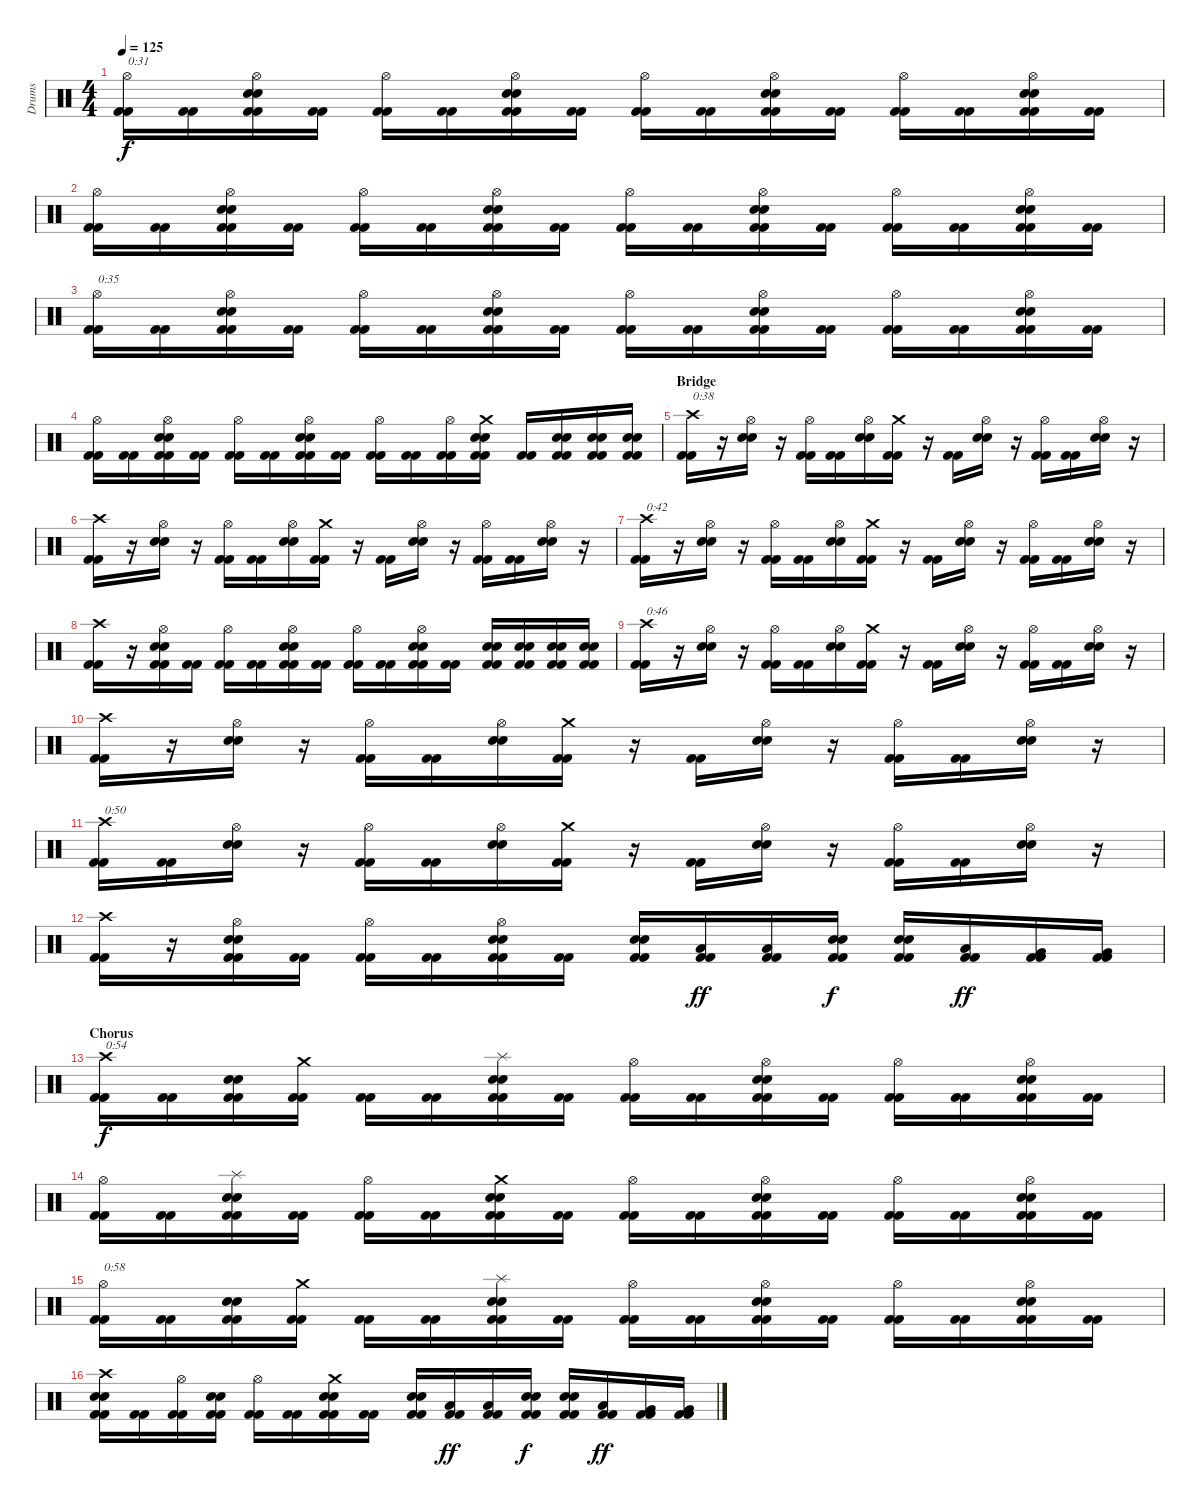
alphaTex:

\track ("Drums" "Drums") {instrument percussion}
\staff {score}
\articulation defaults
\ts (4 4)
\tempo 125
\clef neutral
\ks c
("Hi-Hat (open)" "Kick (hit) 2" "Kick (hit) 2").16{txt "0:31" dy f} ("Kick (hit) 2" "Kick (hit) 2").16 ("Hi-Hat (open)" "Snare (hit) 2" "Snare (hit) 2" "Kick (hit) 2" "Kick (hit) 2").16 ("Kick (hit) 2" "Kick (hit) 2").16 ("Hi-Hat (open)" "Kick (hit) 2" "Kick (hit) 2").16 ("Kick (hit) 2" "Kick (hit) 2").16 ("Hi-Hat (open)" "Snare (hit) 2" "Snare (hit) 2" "Kick (hit) 2" "Kick (hit) 2").16 ("Kick (hit) 2" "Kick (hit) 2").16 ("Hi-Hat (open)" "Kick (hit) 2" "Kick (hit) 2").16 ("Kick (hit) 2" "Kick (hit) 2").16 ("Hi-Hat (open)" "Snare (hit) 2" "Snare (hit) 2" "Kick (hit) 2" "Kick (hit) 2").16 ("Kick (hit) 2" "Kick (hit) 2").16 ("Hi-Hat (open)" "Kick (hit) 2" "Kick (hit) 2").16 ("Kick (hit) 2" "Kick (hit) 2").16 ("Hi-Hat (open)" "Snare (hit) 2" "Snare (hit) 2" "Kick (hit) 2" "Kick (hit) 2").16 ("Kick (hit) 2" "Kick (hit) 2").16 |
("Hi-Hat (open)" "Kick (hit) 2" "Kick (hit) 2").16 ("Kick (hit) 2" "Kick (hit) 2").16 ("Hi-Hat (open)" "Snare (hit) 2" "Snare (hit) 2" "Kick (hit) 2" "Kick (hit) 2").16 ("Kick (hit) 2" "Kick (hit) 2").16 ("Hi-Hat (open)" "Kick (hit) 2" "Kick (hit) 2").16 ("Kick (hit) 2" "Kick (hit) 2").16 ("Hi-Hat (open)" "Snare (hit) 2" "Snare (hit) 2" "Kick (hit) 2" "Kick (hit) 2").16 ("Kick (hit) 2" "Kick (hit) 2").16 ("Hi-Hat (open)" "Kick (hit) 2" "Kick (hit) 2").16 ("Kick (hit) 2" "Kick (hit) 2").16 ("Hi-Hat (open)" "Snare (hit) 2" "Snare (hit) 2" "Kick (hit) 2" "Kick (hit) 2").16 ("Kick (hit) 2" "Kick (hit) 2").16 ("Hi-Hat (open)" "Kick (hit) 2" "Kick (hit) 2").16 ("Kick (hit) 2" "Kick (hit) 2").16 ("Hi-Hat (open)" "Snare (hit) 2" "Snare (hit) 2" "Kick (hit) 2" "Kick (hit) 2").16 ("Kick (hit) 2" "Kick (hit) 2").16 |
("Hi-Hat (open)" "Kick (hit) 2" "Kick (hit) 2").16{txt "0:35"} ("Kick (hit) 2" "Kick (hit) 2").16 ("Hi-Hat (open)" "Snare (hit) 2" "Snare (hit) 2" "Kick (hit) 2" "Kick (hit) 2").16 ("Kick (hit) 2" "Kick (hit) 2").16 ("Hi-Hat (open)" "Kick (hit) 2" "Kick (hit) 2").16 ("Kick (hit) 2" "Kick (hit) 2").16 ("Hi-Hat (open)" "Snare (hit) 2" "Snare (hit) 2" "Kick (hit) 2" "Kick (hit) 2").16 ("Kick (hit) 2" "Kick (hit) 2").16 ("Hi-Hat (open)" "Kick (hit) 2" "Kick (hit) 2").16 ("Kick (hit) 2" "Kick (hit) 2").16 ("Hi-Hat (open)" "Snare (hit) 2" "Snare (hit) 2" "Kick (hit) 2" "Kick (hit) 2").16 ("Kick (hit) 2" "Kick (hit) 2").16 ("Hi-Hat (open)" "Kick (hit) 2" "Kick (hit) 2").16 ("Kick (hit) 2" "Kick (hit) 2").16 ("Hi-Hat (open)" "Snare (hit) 2" "Snare (hit) 2" "Kick (hit) 2" "Kick (hit) 2").16 ("Kick (hit) 2" "Kick (hit) 2").16 |
("Hi-Hat (open)" "Kick (hit) 2" "Kick (hit) 2").16 ("Kick (hit) 2" "Kick (hit) 2").16 ("Hi-Hat (open)" "Snare (hit) 2" "Snare (hit) 2" "Kick (hit) 2" "Kick (hit) 2").16 ("Kick (hit) 2" "Kick (hit) 2").16 ("Hi-Hat (open)" "Kick (hit) 2" "Kick (hit) 2").16 ("Kick (hit) 2" "Kick (hit) 2").16 ("Hi-Hat (open)" "Snare (hit) 2" "Snare (hit) 2" "Kick (hit) 2" "Kick (hit) 2").16 ("Kick (hit) 2" "Kick (hit) 2").16 ("Hi-Hat (open)" "Kick (hit) 2" "Kick (hit) 2").16 ("Kick (hit) 2" "Kick (hit) 2").16 ("Hi-Hat (open)" "Kick (hit) 2" "Kick (hit) 2").16 ("Crash medium (hit)" "Snare (hit) 2" "Snare (hit) 2" "Kick (hit) 2" "Kick (hit) 2").16 ("Kick (hit) 2" "Kick (hit) 2").16 ("Snare (hit) 2" "Snare (hit) 2" "Kick (hit) 2" "Kick (hit) 2").16 ("Snare (hit) 2" "Snare (hit) 2" "Kick (hit) 2" "Kick (hit) 2").16 ("Snare (hit) 2" "Snare (hit) 2" "Kick (hit) 2" "Kick (hit) 2").16 |
\section ("" "Bridge")
("Crash high (hit)" "Kick (hit) 2" "Kick (hit) 2").16{txt "0:38"} r.16 ("Hi-Hat (open)" "Snare (hit) 2" "Snare (hit) 2").16 r.16 ("Hi-Hat (open)" "Kick (hit) 2" "Kick (hit) 2").16 ("Kick (hit) 2" "Kick (hit) 2").16 ("Hi-Hat (open)" "Snare (hit) 2" "Snare (hit) 2").16 ("Crash medium (hit)" "Kick (hit) 2" "Kick (hit) 2").16 r.16 ("Kick (hit) 2" "Kick (hit) 2").16 ("Hi-Hat (open)" "Snare (hit) 2" "Snare (hit) 2").16 r.16 ("Hi-Hat (open)" "Kick (hit) 2" "Kick (hit) 2").16 ("Kick (hit) 2" "Kick (hit) 2").16 ("Hi-Hat (open)" "Snare (hit) 2" "Snare (hit) 2").16 r.16 |
("Crash high (hit)" "Kick (hit) 2" "Kick (hit) 2").16 r.16 ("Hi-Hat (open)" "Snare (hit) 2" "Snare (hit) 2").16 r.16 ("Hi-Hat (open)" "Kick (hit) 2" "Kick (hit) 2").16 ("Kick (hit) 2" "Kick (hit) 2").16 ("Hi-Hat (open)" "Snare (hit) 2" "Snare (hit) 2").16 ("Crash medium (hit)" "Kick (hit) 2" "Kick (hit) 2").16 r.16 ("Kick (hit) 2" "Kick (hit) 2").16 ("Hi-Hat (open)" "Snare (hit) 2" "Snare (hit) 2").16 r.16 ("Hi-Hat (open)" "Kick (hit) 2" "Kick (hit) 2").16 ("Kick (hit) 2" "Kick (hit) 2").16 ("Hi-Hat (open)" "Snare (hit) 2" "Snare (hit) 2").16 r.16 |
("Crash high (hit)" "Kick (hit) 2" "Kick (hit) 2").16{txt "0:42"} r.16 ("Hi-Hat (open)" "Snare (hit) 2" "Snare (hit) 2").16 r.16 ("Hi-Hat (open)" "Kick (hit) 2" "Kick (hit) 2").16 ("Kick (hit) 2" "Kick (hit) 2").16 ("Hi-Hat (open)" "Snare (hit) 2" "Snare (hit) 2").16 ("Crash medium (hit)" "Kick (hit) 2" "Kick (hit) 2").16 r.16 ("Kick (hit) 2" "Kick (hit) 2").16 ("Hi-Hat (open)" "Snare (hit) 2" "Snare (hit) 2").16 r.16 ("Hi-Hat (open)" "Kick (hit) 2" "Kick (hit) 2").16 ("Kick (hit) 2" "Kick (hit) 2").16 ("Hi-Hat (open)" "Snare (hit) 2" "Snare (hit) 2").16 r.16 |
("Crash high (hit)" "Kick (hit) 2" "Kick (hit) 2").16 r.16 ("Hi-Hat (open)" "Snare (hit) 2" "Snare (hit) 2" "Kick (hit) 2" "Kick (hit) 2").16 ("Kick (hit) 2" "Kick (hit) 2").16 ("Hi-Hat (open)" "Kick (hit) 2" "Kick (hit) 2").16 ("Kick (hit) 2" "Kick (hit) 2").16 ("Hi-Hat (open)" "Snare (hit) 2" "Snare (hit) 2" "Kick (hit) 2" "Kick (hit) 2").16 ("Kick (hit) 2" "Kick (hit) 2").16 ("Hi-Hat (open)" "Kick (hit) 2" "Kick (hit) 2").16 ("Kick (hit) 2" "Kick (hit) 2").16 ("Hi-Hat (open)" "Snare (hit) 2" "Snare (hit) 2" "Kick (hit) 2" "Kick (hit) 2").16 ("Kick (hit) 2" "Kick (hit) 2").16 ("Snare (hit) 2" "Snare (hit) 2" "Kick (hit) 2" "Kick (hit) 2").16 ("Snare (hit) 2" "Snare (hit) 2" "Kick (hit) 2" "Kick (hit) 2").16 ("Snare (hit) 2" "Snare (hit) 2" "Kick (hit) 2" "Kick (hit) 2").16 ("Snare (hit) 2" "Snare (hit) 2" "Kick (hit) 2" "Kick (hit) 2").16 |
("Crash high (hit)" "Kick (hit) 2" "Kick (hit) 2").16{txt "0:46"} r.16 ("Hi-Hat (open)" "Snare (hit) 2" "Snare (hit) 2").16 r.16 ("Hi-Hat (open)" "Kick (hit) 2" "Kick (hit) 2").16 ("Kick (hit) 2" "Kick (hit) 2").16 ("Hi-Hat (open)" "Snare (hit) 2" "Snare (hit) 2").16 ("Crash medium (hit)" "Kick (hit) 2" "Kick (hit) 2").16 r.16 ("Kick (hit) 2" "Kick (hit) 2").16 ("Hi-Hat (open)" "Snare (hit) 2" "Snare (hit) 2").16 r.16 ("Hi-Hat (open)" "Kick (hit) 2" "Kick (hit) 2").16 ("Kick (hit) 2" "Kick (hit) 2").16 ("Hi-Hat (open)" "Snare (hit) 2" "Snare (hit) 2").16 r.16 |
("Crash high (hit)" "Kick (hit) 2" "Kick (hit) 2").16 r.16 ("Hi-Hat (open)" "Snare (hit) 2" "Snare (hit) 2").16 r.16 ("Hi-Hat (open)" "Kick (hit) 2" "Kick (hit) 2").16 ("Kick (hit) 2" "Kick (hit) 2").16 ("Hi-Hat (open)" "Snare (hit) 2" "Snare (hit) 2").16 ("Crash medium (hit)" "Kick (hit) 2" "Kick (hit) 2").16 r.16 ("Kick (hit) 2" "Kick (hit) 2").16 ("Hi-Hat (open)" "Snare (hit) 2" "Snare (hit) 2").16 r.16 ("Hi-Hat (open)" "Kick (hit) 2" "Kick (hit) 2").16 ("Kick (hit) 2" "Kick (hit) 2").16 ("Hi-Hat (open)" "Snare (hit) 2" "Snare (hit) 2").16 r.16 |
("Crash high (hit)" "Kick (hit) 2" "Kick (hit) 2").16{txt "0:50"} ("Kick (hit) 2" "Kick (hit) 2").16 ("Hi-Hat (open)" "Snare (hit) 2" "Snare (hit) 2").16 r.16 ("Hi-Hat (open)" "Kick (hit) 2" "Kick (hit) 2").16 ("Kick (hit) 2" "Kick (hit) 2").16 ("Hi-Hat (open)" "Snare (hit) 2" "Snare (hit) 2").16 ("Crash medium (hit)" "Kick (hit) 2" "Kick (hit) 2").16 r.16 ("Kick (hit) 2" "Kick (hit) 2").16 ("Hi-Hat (open)" "Snare (hit) 2" "Snare (hit) 2").16 r.16 ("Hi-Hat (open)" "Kick (hit) 2" "Kick (hit) 2").16 ("Kick (hit) 2" "Kick (hit) 2").16 ("Hi-Hat (open)" "Snare (hit) 2" "Snare (hit) 2").16 r.16 |
("Crash high (hit)" "Kick (hit) 2" "Kick (hit) 2").16 r.16 ("Hi-Hat (open)" "Snare (hit) 2" "Snare (hit) 2" "Kick (hit) 2" "Kick (hit) 2").16 ("Kick (hit) 2" "Kick (hit) 2").16 ("Hi-Hat (open)" "Kick (hit) 2" "Kick (hit) 2").16 ("Kick (hit) 2" "Kick (hit) 2").16 ("Hi-Hat (open)" "Snare (hit) 2" "Snare (hit) 2" "Kick (hit) 2" "Kick (hit) 2").16 ("Kick (hit) 2" "Kick (hit) 2").16 ("Snare (hit) 2" "Snare (hit) 2" "Kick (hit) 2" "Kick (hit) 2").16 ("Low Tom (hit)" "Kick (hit) 2" "Kick (hit) 2").16{dy ff} ("Low Tom (hit)" "Kick (hit) 2" "Kick (hit) 2").16 ("Snare (hit) 2" "Snare (hit) 2" "Kick (hit) 2" "Kick (hit) 2").16{dy f} ("Snare (hit) 2" "Snare (hit) 2" "Kick (hit) 2" "Kick (hit) 2").16 ("Low Tom (hit)" "Kick (hit) 2" "Kick (hit) 2").16{dy ff} ("Very Low Tom (hit)" "Kick (hit) 2" "Kick (hit) 2").16 ("Very Low Tom (hit)" "Kick (hit) 2" "Kick (hit) 2").16 |
\section ("" "Chorus")
("Crash high (hit)" "Kick (hit) 2" "Kick (hit) 2").16{txt "0:54" dy f} ("Kick (hit) 2" "Kick (hit) 2").16 ("Snare (hit) 2" "Snare (hit) 2" "Kick (hit) 2" "Kick (hit) 2").16 ("Crash medium (hit)" "Kick (hit) 2" "Kick (hit) 2").16 ("Kick (hit) 2" "Kick (hit) 2").16 ("Kick (hit) 2" "Kick (hit) 2").16 ("Splash (hit)" "Snare (hit) 2" "Snare (hit) 2" "Kick (hit) 2" "Kick (hit) 2").16 ("Kick (hit) 2" "Kick (hit) 2").16 ("Hi-Hat (open)" "Kick (hit) 2" "Kick (hit) 2").16 ("Kick (hit) 2" "Kick (hit) 2").16 ("Hi-Hat (open)" "Snare (hit) 2" "Snare (hit) 2" "Kick (hit) 2" "Kick (hit) 2").16 ("Kick (hit) 2" "Kick (hit) 2").16 ("Hi-Hat (open)" "Kick (hit) 2" "Kick (hit) 2").16 ("Kick (hit) 2" "Kick (hit) 2").16 ("Hi-Hat (open)" "Snare (hit) 2" "Snare (hit) 2" "Kick (hit) 2" "Kick (hit) 2").16 ("Kick (hit) 2" "Kick (hit) 2").16 |
("Hi-Hat (open)" "Kick (hit) 2" "Kick (hit) 2").16 ("Kick (hit) 2" "Kick (hit) 2").16 ("Splash (hit)" "Snare (hit) 2" "Snare (hit) 2" "Kick (hit) 2" "Kick (hit) 2").16 ("Kick (hit) 2" "Kick (hit) 2").16 ("Hi-Hat (open)" "Kick (hit) 2" "Kick (hit) 2").16 ("Kick (hit) 2" "Kick (hit) 2").16 ("Crash medium (hit)" "Snare (hit) 2" "Snare (hit) 2" "Kick (hit) 2" "Kick (hit) 2").16 ("Kick (hit) 2" "Kick (hit) 2").16 ("Hi-Hat (open)" "Kick (hit) 2" "Kick (hit) 2").16 ("Kick (hit) 2" "Kick (hit) 2").16 ("Hi-Hat (open)" "Snare (hit) 2" "Snare (hit) 2" "Kick (hit) 2" "Kick (hit) 2").16 ("Kick (hit) 2" "Kick (hit) 2").16 ("Hi-Hat (open)" "Kick (hit) 2" "Kick (hit) 2").16 ("Kick (hit) 2" "Kick (hit) 2").16 ("Hi-Hat (open)" "Snare (hit) 2" "Snare (hit) 2" "Kick (hit) 2" "Kick (hit) 2").16 ("Kick (hit) 2" "Kick (hit) 2").16 |
("Hi-Hat (open)" "Kick (hit) 2" "Kick (hit) 2").16{txt "0:58"} ("Kick (hit) 2" "Kick (hit) 2").16 ("Snare (hit) 2" "Snare (hit) 2" "Kick (hit) 2" "Kick (hit) 2").16 ("Crash medium (hit)" "Kick (hit) 2" "Kick (hit) 2").16 ("Kick (hit) 2" "Kick (hit) 2").16 ("Kick (hit) 2" "Kick (hit) 2").16 ("Splash (hit)" "Snare (hit) 2" "Snare (hit) 2" "Kick (hit) 2" "Kick (hit) 2").16 ("Kick (hit) 2" "Kick (hit) 2").16 ("Hi-Hat (open)" "Kick (hit) 2" "Kick (hit) 2").16 ("Kick (hit) 2" "Kick (hit) 2").16 ("Hi-Hat (open)" "Snare (hit) 2" "Snare (hit) 2" "Kick (hit) 2" "Kick (hit) 2").16 ("Kick (hit) 2" "Kick (hit) 2").16 ("Hi-Hat (open)" "Kick (hit) 2" "Kick (hit) 2").16 ("Kick (hit) 2" "Kick (hit) 2").16 ("Hi-Hat (open)" "Snare (hit) 2" "Snare (hit) 2" "Kick (hit) 2" "Kick (hit) 2").16 ("Kick (hit) 2" "Kick (hit) 2").16 |
("Crash high (hit)" "Snare (hit) 2" "Snare (hit) 2" "Kick (hit) 2" "Kick (hit) 2").16 ("Kick (hit) 2" "Kick (hit) 2").16 ("Hi-Hat (open)" "Kick (hit) 2" "Kick (hit) 2").16 ("Snare (hit) 2" "Snare (hit) 2" "Kick (hit) 2" "Kick (hit) 2").16 ("Hi-Hat (open)" "Kick (hit) 2" "Kick (hit) 2").16 ("Kick (hit) 2" "Kick (hit) 2").16 ("Crash medium (hit)" "Snare (hit) 2" "Snare (hit) 2" "Kick (hit) 2" "Kick (hit) 2").16 ("Kick (hit) 2" "Kick (hit) 2").16 ("Snare (hit) 2" "Snare (hit) 2" "Kick (hit) 2" "Kick (hit) 2").16 ("Low Tom (hit)" "Kick (hit) 2" "Kick (hit) 2").16{dy ff} ("Low Tom (hit)" "Kick (hit) 2" "Kick (hit) 2").16 ("Snare (hit) 2" "Snare (hit) 2" "Kick (hit) 2" "Kick (hit) 2").16{dy f} ("Snare (hit) 2" "Snare (hit) 2" "Kick (hit) 2" "Kick (hit) 2").16 ("Low Tom (hit)" "Kick (hit) 2" "Kick (hit) 2").16{dy ff} ("Very Low Tom (hit)" "Kick (hit) 2" "Kick (hit) 2").16 ("Very Low Tom (hit)" "Kick (hit) 2" "Kick (hit) 2").16
